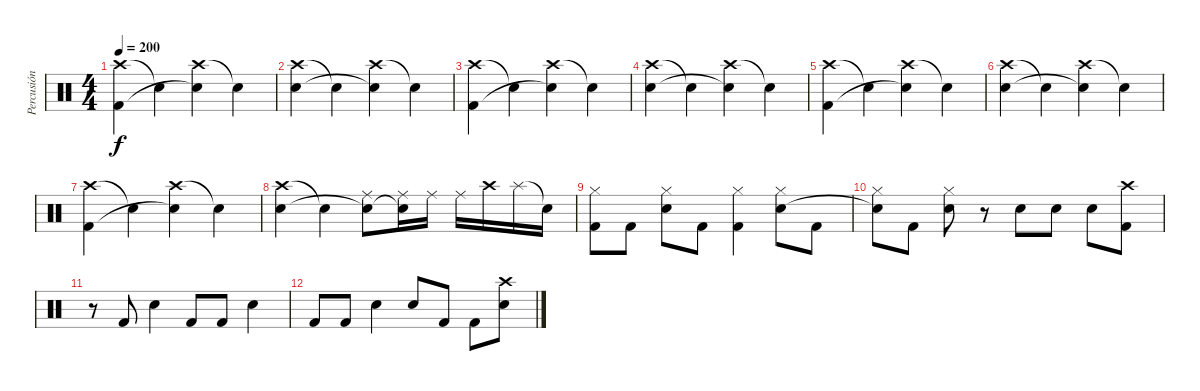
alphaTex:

\track ("Percusión" "Percusión") {instrument percussion}
\staff {score}
\articulation defaults
\ts (4 4)
\tempo 200
\clef neutral
\ks c
("Crash high (hit)" "Kick (hit) 2").4{dy f} "Snare (hit)"{t}.4 ("Crash high (hit)" "Snare (hit)"{t}).4 "Snare (hit)"{t}.4 |
("Crash high (hit)" "Electric Snare (hit)").4 "Snare (hit)"{t}.4 ("Crash high (hit)" "Snare (hit)"{t}).4 "Snare (hit)"{t}.4 |
("Crash high (hit)" "Kick (hit) 2").4 "Snare (hit)"{t}.4 ("Crash high (hit)" "Snare (hit)"{t}).4 "Snare (hit)"{t}.4 |
("Crash high (hit)" "Electric Snare (hit)").4 "Snare (hit)"{t}.4 ("Crash high (hit)" "Snare (hit)"{t}).4 "Snare (hit)"{t}.4 |
("Crash high (hit)" "Kick (hit) 2").4 "Snare (hit)"{t}.4 ("Crash high (hit)" "Snare (hit)"{t}).4 "Snare (hit)"{t}.4 |
("Crash high (hit)" "Electric Snare (hit)").4 "Snare (hit)"{t}.4 ("Crash high (hit)" "Snare (hit)"{t}).4 "Snare (hit)"{t}.4 |
("Crash high (hit)" "Kick (hit) 2").4 "Snare (hit)"{t}.4 ("Crash high (hit)" "Snare (hit)"{t}).4 "Snare (hit)"{t}.4 |
("Crash high (hit)" "Electric Snare (hit)").4 "Snare (hit)"{t}.4 ("Ride (middle)" "Snare (hit)"{t}).8 ("Ride (middle)" "Snare (hit)"{t}).16 "Ride (middle)".16 "Ride (middle)".16 "Crash high (hit)".16 "Splash (hit)".16 "Snare (hit)"{t}.16 |
("Hi-Hat (closed)" "Kick (hit) 2").8 "Kick (hit) 2".8 ("Hi-Hat (closed)" "Electric Snare (hit)").8 "Kick (hit) 2".8 ("Hi-Hat (closed)" "Kick (hit) 2").4 ("Hi-Hat (closed)" "Electric Snare (hit)").8 "Kick (hit) 2".8 |
("Hi-Hat (closed)" "Snare (hit)"{t}).8 "Kick (hit) 2".8 ("Hi-Hat (closed)" "Electric Snare (hit)").8 r.8 "Electric Snare (hit)".8 "Electric Snare (hit)".8 "Electric Snare (hit)".8 ("Crash high (hit)" "Kick (hit) 2").8 |
r.8 "Kick (hit) 2".8 "Electric Snare (hit)".4 "Kick (hit) 2".8 "Kick (hit) 2".8 "Electric Snare (hit)".4 |
"Kick (hit) 2".8 "Kick (hit) 2".8 "Electric Snare (hit)".4 "Electric Snare (hit)".8 "Kick (hit) 2".8 "Kick (hit) 2".8 ("Crash high (hit)" "Electric Snare (hit)").8
